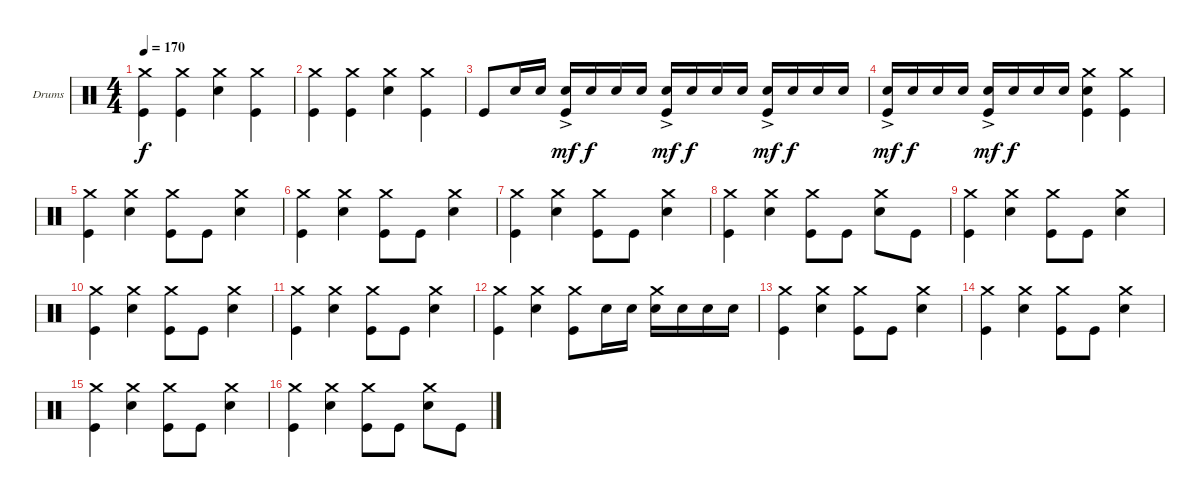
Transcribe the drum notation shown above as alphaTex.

\defaultSystemsLayout 4
\bracketExtendMode groupsimilarinstruments
\firstSystemTrackNameOrientation horizontal
\otherSystemsTrackNameOrientation horizontal
\track ("Drumkit" "Drums") {instrument percussion}
\staff {score}
\articulation defaults
\ts (4 4)
\tempo 170
\clef neutral
\ks c
("Crash medium (hit)" "Kick (hit)").4{dy f} ("Crash medium (hit)" "Kick (hit)").4 ("Crash medium (hit)" "Snare (hit) 2").4 ("Crash medium (hit)" "Kick (hit)").4 |
("Crash medium (hit)" "Kick (hit)").4 ("Crash medium (hit)" "Kick (hit)").4 ("Crash medium (hit)" "Snare (hit) 2").4 ("Crash medium (hit)" "Kick (hit)").4 |
"Kick (hit)".8 "Snare (hit) 2".16 "Snare (hit) 2".16 ("Snare (hit) 2"{ac} "Kick (hit)"{ac}).16{dy mf} "Snare (hit) 2".16{dy f} "Snare (hit) 2".16 "Snare (hit) 2".16 ("Snare (hit) 2"{ac} "Kick (hit)"{ac}).16{dy mf} "Snare (hit) 2".16{dy f} "Snare (hit) 2".16 "Snare (hit) 2".16 ("Snare (hit) 2"{ac} "Kick (hit)"{ac}).16{dy mf} "Snare (hit) 2".16{dy f} "Snare (hit) 2".16 "Snare (hit) 2".16 |
("Snare (hit) 2"{ac} "Kick (hit)"{ac}).16{dy mf} "Snare (hit) 2".16{dy f} "Snare (hit) 2".16 "Snare (hit) 2".16 ("Snare (hit) 2"{ac} "Kick (hit)"{ac}).16{dy mf} "Snare (hit) 2".16{dy f} "Snare (hit) 2".16 "Snare (hit) 2".16 ("Crash medium (hit)" "Snare (hit) 2" "Kick (hit)").4 ("Crash medium (hit)" "Kick (hit)").4 |
("Crash medium (hit)" "Kick (hit)").4 ("Crash medium (hit)" "Snare (hit) 2").4 ("Crash medium (hit)" "Kick (hit)").8 "Kick (hit)".8 ("Crash medium (hit)" "Snare (hit) 2").4 |
("Crash medium (hit)" "Kick (hit)").4 ("Crash medium (hit)" "Snare (hit) 2").4 ("Crash medium (hit)" "Kick (hit)").8 "Kick (hit)".8 ("Crash medium (hit)" "Snare (hit) 2").4 |
("Crash medium (hit)" "Kick (hit)").4 ("Crash medium (hit)" "Snare (hit) 2").4 ("Crash medium (hit)" "Kick (hit)").8 "Kick (hit)".8 ("Crash medium (hit)" "Snare (hit) 2").4 |
("Crash medium (hit)" "Kick (hit)").4 ("Crash medium (hit)" "Snare (hit) 2").4 ("Crash medium (hit)" "Kick (hit)").8 "Kick (hit)".8 ("Crash medium (hit)" "Snare (hit) 2").8 "Kick (hit)".8 |
("Crash medium (hit)" "Kick (hit)").4 ("Crash medium (hit)" "Snare (hit) 2").4 ("Crash medium (hit)" "Kick (hit)").8 "Kick (hit)".8 ("Crash medium (hit)" "Snare (hit) 2").4 |
("Crash medium (hit)" "Kick (hit)").4 ("Crash medium (hit)" "Snare (hit) 2").4 ("Crash medium (hit)" "Kick (hit)").8 "Kick (hit)".8 ("Crash medium (hit)" "Snare (hit) 2").4 |
("Crash medium (hit)" "Kick (hit)").4 ("Crash medium (hit)" "Snare (hit) 2").4 ("Crash medium (hit)" "Kick (hit)").8 "Kick (hit)".8 ("Crash medium (hit)" "Snare (hit) 2").4 |
("Crash medium (hit)" "Kick (hit)").4 ("Crash medium (hit)" "Snare (hit) 2").4 ("Crash medium (hit)" "Kick (hit)").8 "Snare (hit) 2".16 "Snare (hit) 2".16 ("Crash medium (hit)" "Snare (hit) 2").16 "Snare (hit) 2".16 "Snare (hit) 2".16 "Snare (hit) 2".16 |
("Crash medium (hit)" "Kick (hit)").4 ("Crash medium (hit)" "Snare (hit) 2").4 ("Crash medium (hit)" "Kick (hit)").8 "Kick (hit)".8 ("Crash medium (hit)" "Snare (hit) 2").4 |
("Crash medium (hit)" "Kick (hit)").4 ("Crash medium (hit)" "Snare (hit) 2").4 ("Crash medium (hit)" "Kick (hit)").8 "Kick (hit)".8 ("Crash medium (hit)" "Snare (hit) 2").4 |
("Crash medium (hit)" "Kick (hit)").4 ("Crash medium (hit)" "Snare (hit) 2").4 ("Crash medium (hit)" "Kick (hit)").8 "Kick (hit)".8 ("Crash medium (hit)" "Snare (hit) 2").4 |
("Crash medium (hit)" "Kick (hit)").4 ("Crash medium (hit)" "Snare (hit) 2").4 ("Crash medium (hit)" "Kick (hit)").8 "Kick (hit)".8 ("Crash medium (hit)" "Snare (hit) 2").8 "Kick (hit)".8
